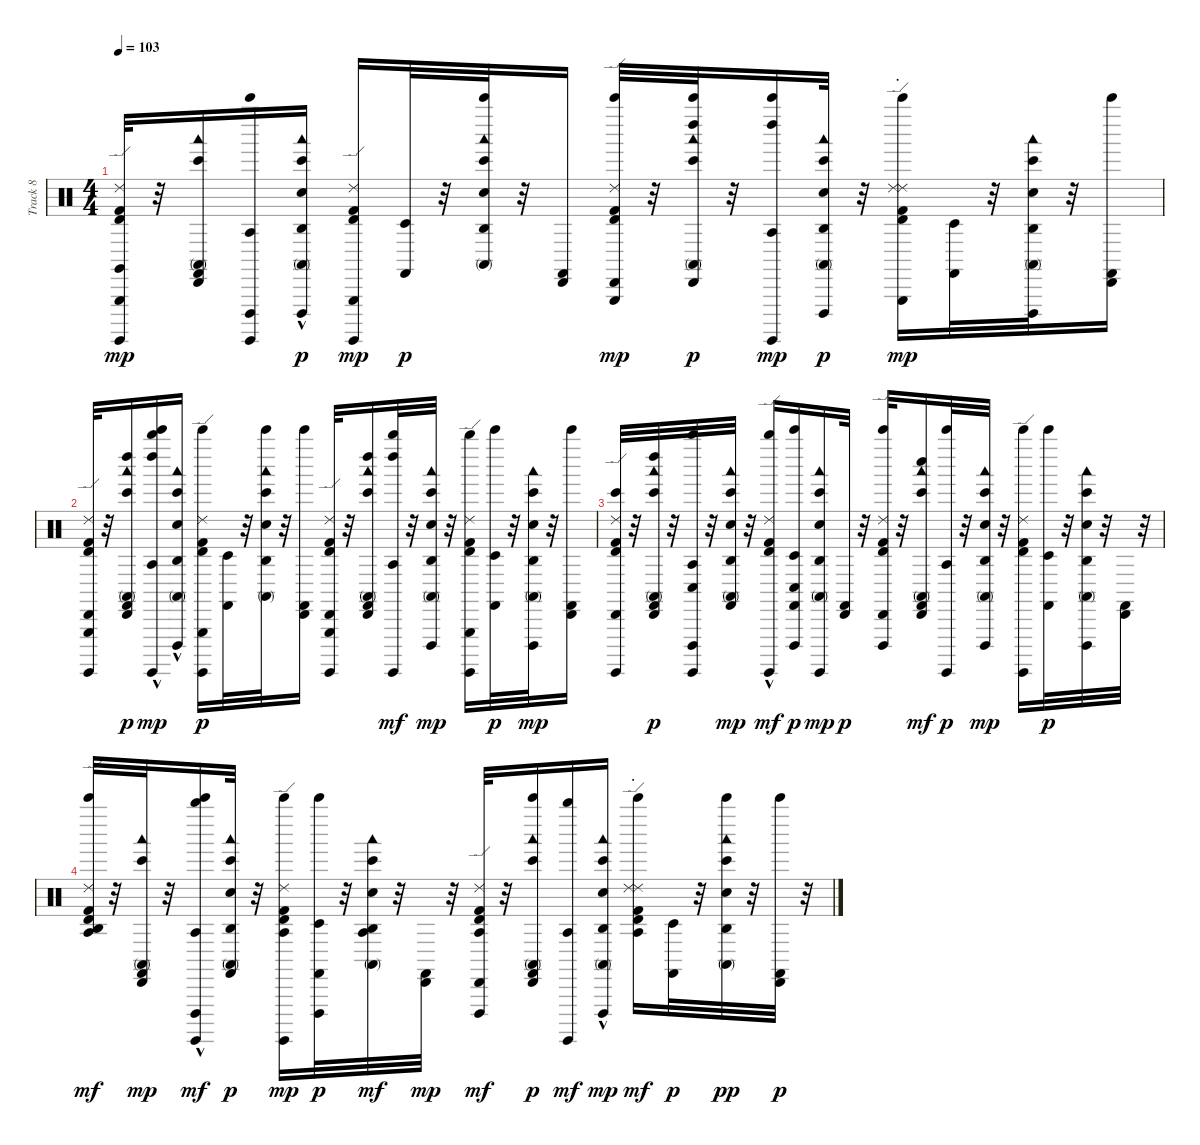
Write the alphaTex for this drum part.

\track ("Track 8" "Track 8") {instrument percussion}
\staff {score}
\articulation defaults
\ts (4 4)
\tempo 103
\clef neutral
\ks c
("Ride (edge) 2" "Timbale high (hit)" "Kick (hit) 2" "Triangle (hit)" "Claves (hit)" "Surdo (hit)").32{dy mp} r.32 ("Bongo High (hit)" "Cabasa (hit)" "Conga high (mute)" "Woodblock low (hit)" "Castanets (hit)").16 ("Agogo tow (hit)" "Bell Tree (hit)" "Cuica (open)" "Surdo (hit)").16 ("Bongo High (hit)" "Conga high (mute)" "Agogo high (hit)" "Woodblock low (hit)" "Hand Clap (hit)" "Cuica (open)"{hac}).16{dy p} ("Ride (edge) 2" "Timbale high (hit)" "Kick (hit) 2" "Triangle (hit)" "Surdo (hit)").16{dy mp} ("Timbale low (hit)" "Castanets (hit)").32{dy p} r.32 ("Bongo High (hit)" "Agogo high (hit)" "Conga high (mute)" "Woodblock low (hit)" "Hand Clap (hit)" "Bell Tree (hit)").32 r.32 ("Cabasa (hit)" "Castanets (hit)").16 ("Ride (edge) 2" "Cabasa (hit)" "Timbale high (hit)" "Kick (hit) 2" "Triangle (hit)" "Bell Tree (hit)").32{dy mp} r.32 ("Bongo High (hit)" "Cabasa (hit)" "Conga high (mute)" "Woodblock low (hit)" "Left Maraca (hit)" "Bell Tree (hit)").32{dy p} r.32 ("Agogo tow (hit)" "Left Maraca (hit)" "Bell Tree (hit)" "Surdo (hit)").16{dy mp} ("Bongo High (hit)" "Conga high (mute)" "Agogo high (hit)" "Woodblock low (hit)" "Hand Clap (hit)" "Cuica (open)").32{dy p} r.32 ("Ride (edge) 2" "Timbale high (hit)" "Kick (hit) 2" "Triangle (hit)" "Bell Tree (hit)" "Ride (choke) 2").16{dy mp} ("Timbale low (hit)" "Castanets (hit)").32 r.32 ("Bongo High (hit)" "Agogo high (hit)" "Conga high (mute)" "Woodblock low (hit)" "Hand Clap (hit)" "Cuica (open)").32 r.32 ("Cabasa (hit)" "Bell Tree (hit)" "Castanets (hit)").16 |
("Ride (edge) 2" "Cabasa (hit)" "Timbale high (hit)" "Kick (hit) 2" "Triangle (hit)" "Surdo (hit)").32 r.32 ("Bongo High (hit)" "Cabasa (hit)" "Conga high (mute)" "Woodblock low (hit)" "Left Maraca (hit)" "Castanets (hit)").16{dy p} ("Agogo tow (hit)" "Bell Tree (hit)" "Left Maraca (hit)" "Surdo (hit)" "Whistle high (hit)"{hac}).16{dy mp} ("Bongo High (hit)" "Conga high (mute)" "Agogo high (hit)" "Woodblock low (hit)" "Hand Clap (hit)" "Cuica (open)"{hac}).16 ("Ride (edge) 2" "Timbale high (hit)" "Kick (hit) 2" "Bell Tree (hit)" "Triangle (hit)" "Surdo (hit)").16{dy p} ("Timbale low (hit)" "Castanets (hit)").32 r.32 ("Bongo High (hit)" "Agogo high (hit)" "Conga high (mute)" "Woodblock low (hit)" "Hand Clap (hit)" "Bell Tree (hit)").32 r.32 ("Cabasa (hit)" "Castanets (hit)" "Bell Tree (hit)").16 ("Ride (edge) 2" "Cabasa (hit)" "Timbale high (hit)" "Kick (hit) 2" "Triangle (hit)" "Surdo (hit)").32 r.32 ("Bongo High (hit)" "Cabasa (hit)" "Conga high (mute)" "Woodblock low (hit)" "Left Maraca (hit)" "Castanets (hit)").16 ("Agogo tow (hit)" "Left Maraca (hit)" "Surdo (hit)" "Whistle high (hit)").32{dy mf} r.32 ("Bongo High (hit)" "Conga high (mute)" "Agogo high (hit)" "Woodblock low (hit)" "Hand Clap (hit)" "Cuica (open)").32{dy mp} r.32 ("Ride (edge) 2" "Timbale high (hit)" "Kick (hit) 2" "Triangle (hit)" "Surdo (hit)" "Whistle high (hit)").16 ("Timbale low (hit)" "Castanets (hit)" "Bell Tree (hit)").32{dy p} r.32 ("Bongo High (hit)" "Agogo high (hit)" "Conga high (mute)" "Woodblock low (hit)" "Hand Clap (hit)" "Cuica (open)").32{dy mp} r.32 ("Cabasa (hit)" "Castanets (hit)" "Bell Tree (hit)").16 |
("Ride (edge) 2" "Cabasa (hit)" "Timbale high (hit)" "Kick (hit) 2" "Bongo High (hit)" "Surdo (hit)").32 r.32 ("Bongo High (hit)" "Cabasa (hit)" "Conga high (mute)" "Woodblock low (hit)" "Left Maraca (hit)" "Castanets (hit)").32{dy p} r.32 ("Agogo tow (hit)" "Cuica (open)" "Conga low (hit)" "Surdo (hit)" "Whistle high (hit)").32 r.32 ("Bongo High (hit)" "Conga high (mute)" "Agogo high (hit)" "Woodblock low (hit)" "Hand Clap (hit)" "Castanets (hit)").32{dy mp} r.32 ("Ride (edge) 2" "Timbale high (hit)" "Kick (hit) 2" "Surdo (hit)" "Whistle high (hit)"{hac}).16{dy mf} ("Timbale low (hit)" "Cuica (open)" "Conga low (hit)" "Castanets (hit)" "Bell Tree (hit)").16{dy p} ("Bongo High (hit)" "Agogo high (hit)" "Conga high (mute)" "Woodblock low (hit)" "Hand Clap (hit)" "Surdo (hit)").16{dy mp} ("Cabasa (hit)" "Castanets (hit)").32{dy p} r.32 ("Ride (edge) 2" "Cabasa (hit)" "Timbale high (hit)" "Kick (hit) 2" "Cuica (open)" "Bell Tree (hit)").32 r.32 ("Bongo High (hit)" "Cabasa (hit)" "Conga high (mute)" "Woodblock low (hit)" "Castanets (hit)" "Whistle low (hit)").16{dy mf} ("Agogo tow (hit)" "Bell Tree (hit)" "Surdo (hit)").32{dy p} r.32 ("Bongo High (hit)" "Conga high (mute)" "Agogo high (hit)" "Woodblock low (hit)" "Hand Clap (hit)" "Cuica (open)").32{dy mp} r.32 ("Ride (edge) 2" "Timbale high (hit)" "Bell Tree (hit)" "Kick (hit) 2" "Surdo (hit)").16 ("Timbale low (hit)" "Castanets (hit)" "Bell Tree (hit)").32{dy p} r.32 ("Bongo High (hit)" "Conga high (mute)" "Agogo high (hit)" "Woodblock low (hit)" "Hand Clap (hit)" "Cuica (open)").32 r.32 ("Cabasa (hit)" "Castanets (hit)").32 r.32 |
("Ride (edge) 2" "Timbale high (hit)" "Agogo high (hit)" "Kick (hit) 2" "Bell Tree (hit)" "Agogo tow (hit)").32{dy mf} r.32 ("Bongo High (hit)" "Cabasa (hit)" "Conga high (mute)" "Woodblock low (hit)" "Castanets (hit)").32{dy mp} r.32 ("Cuica (open)" "Bell Tree (hit)" "Agogo tow (hit)" "Surdo (hit)" "Whistle high (hit)"{hac}).16{dy mf} ("Bongo High (hit)" "Conga high (mute)" "Agogo high (hit)" "Woodblock low (hit)" "Hand Clap (hit)" "Castanets (hit)").32{dy p} r.32 ("Ride (edge) 2" "Timbale high (hit)" "Kick (hit) 2" "Bell Tree (hit)" "Agogo tow (hit)" "Surdo (hit)").16{dy mp} ("Timbale low (hit)" "Cuica (open)" "Castanets (hit)" "Bell Tree (hit)").32{dy p} r.32 ("Bongo High (hit)" "Agogo high (hit)" "Conga high (mute)" "Woodblock low (hit)" "Hand Clap (hit)" "Agogo tow (hit)").32{dy mf} r.32 ("Cabasa (hit)" "Castanets (hit)").32{dy mp} r.32 ("Ride (edge) 2" "Cabasa (hit)" "Timbale high (hit)" "Kick (hit) 2" "Cuica (open)" "Agogo tow (hit)").32{dy mf} r.32 ("Bongo High (hit)" "Cabasa (hit)" "Conga high (mute)" "Woodblock low (hit)" "Castanets (hit)" "Bell Tree (hit)").16{dy p} ("Agogo tow (hit)" "Surdo (hit)" "Whistle high (hit)").16{dy mf} ("Bongo High (hit)" "Conga high (mute)" "Agogo high (hit)" "Woodblock low (hit)" "Hand Clap (hit)" "Cuica (open)"{hac}).16{dy mp} ("Ride (edge) 2" "Timbale high (hit)" "Kick (hit) 2" "Bell Tree (hit)" "Ride (choke) 2" "Agogo tow (hit)").16{dy mf} ("Timbale low (hit)" "Castanets (hit)").32{dy p} r.32 ("Bongo High (hit)" "Agogo high (hit)" "Conga high (mute)" "Woodblock low (hit)" "Hand Clap (hit)" "Bell Tree (hit)").32{dy pp} r.32 ("Cabasa (hit)" "Castanets (hit)" "Bell Tree (hit)").32{dy p} r.32
